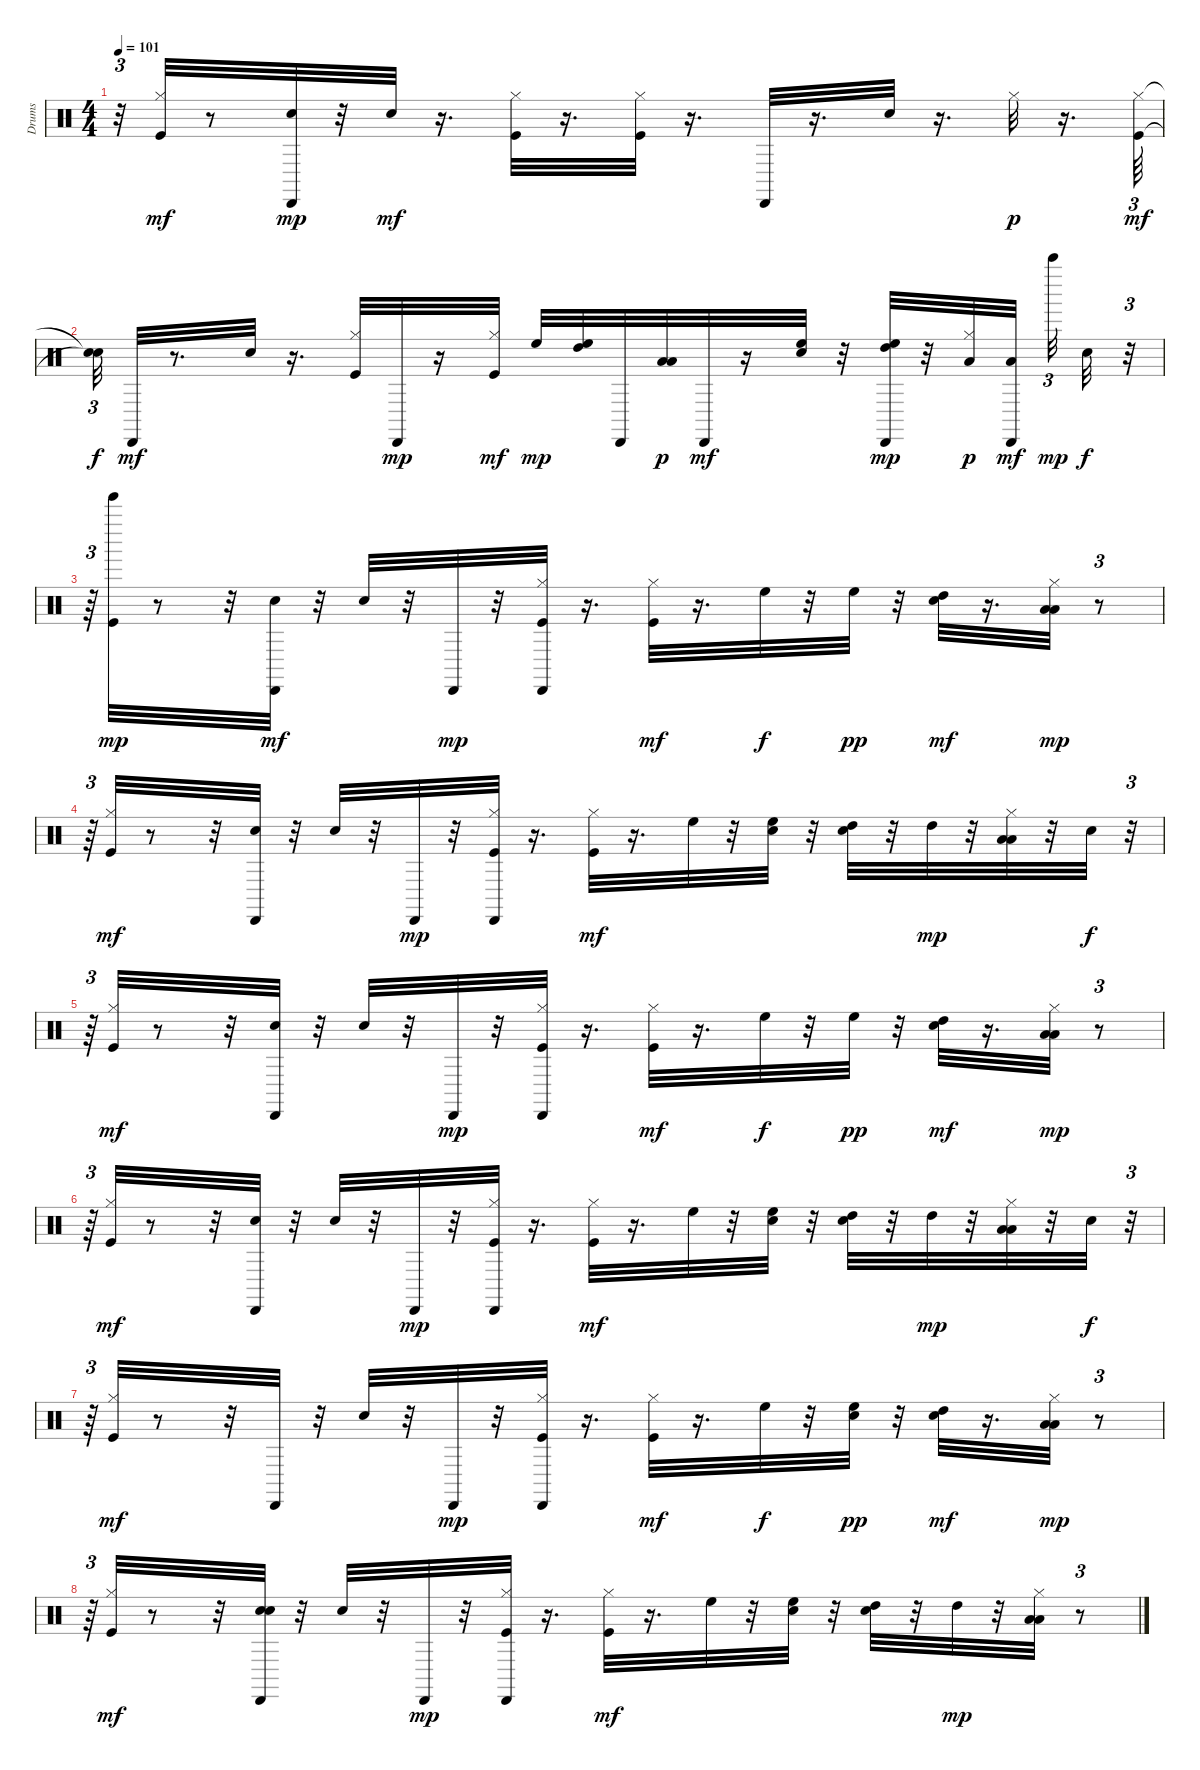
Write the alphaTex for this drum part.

\track ("Drums" "Drums") {instrument percussion}
\staff {score}
\articulation defaults
\ts (4 4)
\tempo 101
\clef neutral
\ks c
r.32{tu (3 2) dy mp} ("Kick (hit)" "Hi-Hat (closed)").32{dy mf} r.8 ("Hand Clap (hit)" "Cabasa (hit)").32{dy mp} r.32 "Snare (hit) 2".32{dy mf} r.16{d} ("Kick (hit)" "Hi-Hat (closed)").32 r.16{d} ("Kick (hit)" "Hi-Hat (closed)").32 r.16{d} "Cabasa (hit)".32 r.16{d} "Snare (hit) 2".32 r.16{d} "Hi-Hat (closed)".32{dy p} r.16{d} ("Kick (hit)" "Hi-Hat (closed)").64{tu (3 2) dy mf} |
("Snare (hit)"{t} "Snare (hit)"{t}).32{tu (3 2) dy f} "Cabasa (hit)".32{dy mf} r.8{d} "Snare (hit) 2".32 r.16{d} ("Kick (hit)" "Hi-Hat (closed)").32 "Cabasa (hit)".32{dy mp} r.16 ("Kick (hit)" "Hi-Hat (closed)").32{dy mf} "High Floor Tom (hit)".32{dy mp} ("High Tom (hit)" "High Floor Tom (hit)").32 "Cabasa (hit)".32 ("Low Floor Tom (hit)" "Low Tom (hit)").32{dy p} "Cabasa (hit)".32{dy mf} r.16 ("Snare (hit) 2" "High Floor Tom (hit)").32 r.32 ("High Tom (hit)" "High Floor Tom (hit)" "Cabasa (hit)").32{dy mp} r.32 ("Low Floor Tom (hit)" "Hi-Hat (closed)").32{dy p} ("Low Tom (hit)" "Cabasa (hit)").32{dy mf beam splitsecondary} "Bell Tree (hit)".32{tu (3 2) dy mp} "Hand Clap (hit)".32{dy f} r.32{tu (3 2)} |
r.64{tu (3 2)} ("Kick (hit)" "Tinkle Bell (hit)").32{dy mp} r.8 r.32 ("Hand Clap (hit)" "Cabasa (hit)").32{dy mf} r.32 "Snare (hit) 2".32 r.32 "Cabasa (hit)".32{dy mp} r.32 ("Kick (hit)" "Hi-Hat (closed)" "Cabasa (hit)").32 r.16{d} ("Kick (hit)" "Hi-Hat (closed)").32{dy mf} r.16{d} "High Floor Tom (hit)".32{dy f} r.32 "High Floor Tom (hit)".32{dy pp} r.32 ("Snare (hit) 2" "High Tom (hit)").32{dy mf} r.16{d} ("Low Floor Tom (hit)" "Hi-Hat (closed)" "Low Tom (hit)").32{dy mp} r.8{tu (3 2)} |
r.64{tu (3 2)} ("Kick (hit)" "Hi-Hat (closed)").32{dy mf} r.8 r.32 ("Hand Clap (hit)" "Cabasa (hit)").32 r.32 "Snare (hit) 2".32 r.32 "Cabasa (hit)".32{dy mp} r.32 ("Kick (hit)" "Hi-Hat (closed)" "Cabasa (hit)").32 r.16{d} ("Kick (hit)" "Hi-Hat (closed)").32{dy mf} r.16{d} "High Floor Tom (hit)".32 r.32 ("Hand Clap (hit)" "High Floor Tom (hit)").32 r.32 ("Snare (hit) 2" "High Tom (hit)").32 r.32 "High Tom (hit)".32{dy mp} r.32 ("Low Floor Tom (hit)" "Hi-Hat (closed)" "Low Tom (hit)").32 r.32 "Hand Clap (hit)".32{dy f} r.32{tu (3 2)} |
r.64{tu (3 2)} ("Kick (hit)" "Hi-Hat (closed)").32{dy mf} r.8 r.32 ("Hand Clap (hit)" "Cabasa (hit)").32 r.32 "Snare (hit) 2".32 r.32 "Cabasa (hit)".32{dy mp} r.32 ("Kick (hit)" "Hi-Hat (closed)" "Cabasa (hit)").32 r.16{d} ("Kick (hit)" "Hi-Hat (closed)").32{dy mf} r.16{d} "High Floor Tom (hit)".32{dy f} r.32 "High Floor Tom (hit)".32{dy pp} r.32 ("Snare (hit) 2" "High Tom (hit)").32{dy mf} r.16{d} ("Low Floor Tom (hit)" "Hi-Hat (closed)" "Low Tom (hit)").32{dy mp} r.8{tu (3 2)} |
r.64{tu (3 2)} ("Kick (hit)" "Hi-Hat (closed)").32{dy mf} r.8 r.32 ("Hand Clap (hit)" "Cabasa (hit)").32 r.32 "Snare (hit) 2".32 r.32 "Cabasa (hit)".32{dy mp} r.32 ("Kick (hit)" "Hi-Hat (closed)" "Cabasa (hit)").32 r.16{d} ("Kick (hit)" "Hi-Hat (closed)").32{dy mf} r.16{d} "High Floor Tom (hit)".32 r.32 ("Hand Clap (hit)" "High Floor Tom (hit)").32 r.32 ("Snare (hit) 2" "High Tom (hit)").32 r.32 "High Tom (hit)".32{dy mp} r.32 ("Low Floor Tom (hit)" "Hi-Hat (closed)" "Low Tom (hit)").32 r.32 "Hand Clap (hit)".32{dy f} r.32{tu (3 2)} |
r.64{tu (3 2)} ("Kick (hit)" "Hi-Hat (closed)").32{dy mf} r.8 r.32 "Cabasa (hit)".32 r.32 "Snare (hit) 2".32 r.32 "Cabasa (hit)".32{dy mp} r.32 ("Kick (hit)" "Hi-Hat (closed)" "Cabasa (hit)").32 r.16{d} ("Kick (hit)" "Hi-Hat (closed)").32{dy mf} r.16{d} "High Floor Tom (hit)".32{dy f} r.32 ("Hand Clap (hit)" "High Floor Tom (hit)").32{dy pp} r.32 ("Snare (hit) 2" "High Tom (hit)").32{dy mf} r.16{d} ("Low Floor Tom (hit)" "Hi-Hat (closed)" "Low Tom (hit)").32{dy mp} r.8{tu (3 2)} |
r.64{tu (3 2)} ("Kick (hit)" "Hi-Hat (closed)").32{dy mf} r.8 r.32 ("Hand Clap (hit)" "Hand Clap (hit)" "Cabasa (hit)").32 r.32 "Snare (hit) 2".32 r.32 "Cabasa (hit)".32{dy mp} r.32 ("Kick (hit)" "Hi-Hat (closed)" "Cabasa (hit)").32 r.16{d} ("Kick (hit)" "Hi-Hat (closed)").32{dy mf} r.16{d} "High Floor Tom (hit)".32 r.32 ("Hand Clap (hit)" "High Floor Tom (hit)").32 r.32 ("Snare (hit) 2" "High Tom (hit)").32 r.32 "High Tom (hit)".32{dy mp} r.32 ("Low Floor Tom (hit)" "Hi-Hat (closed)" "Low Tom (hit)").32 r.8{tu (3 2)}
